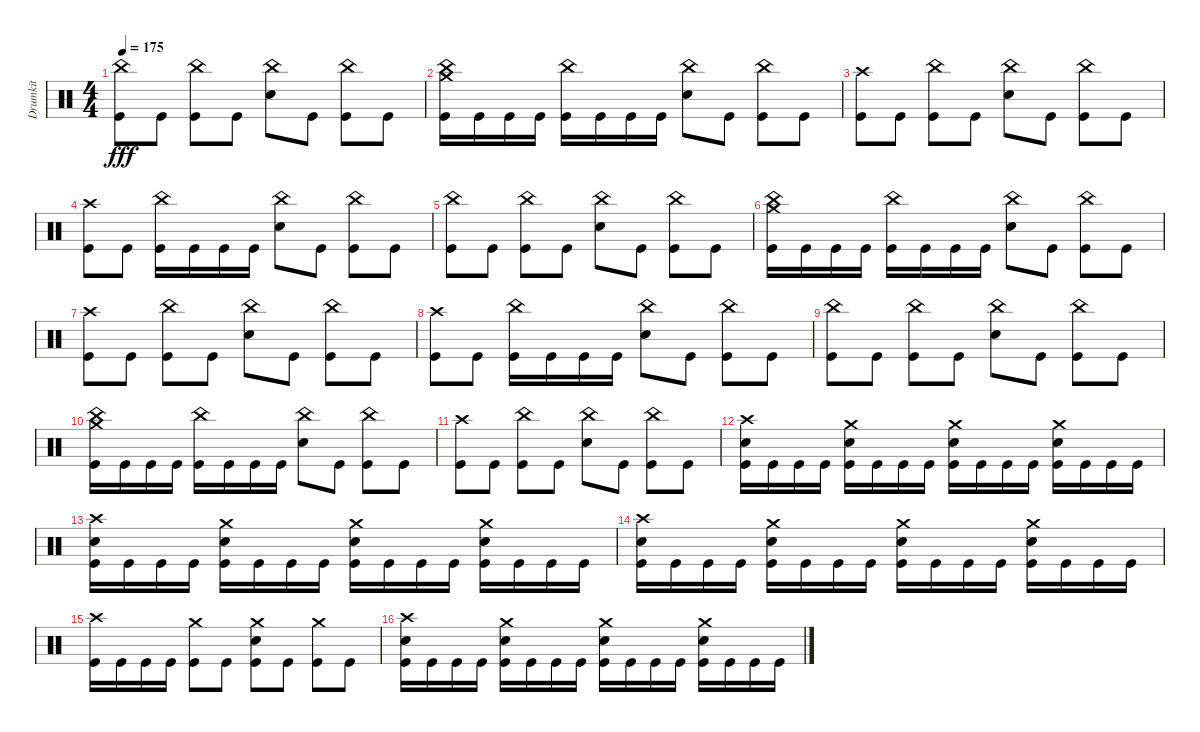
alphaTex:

\track ("Drumkit" "Drumkit") {instrument percussion}
\staff {score}
\articulation defaults
\ts (4 4)
\tempo 175
\clef neutral
\ks c
("China (hit)" "Kick (hit)").8{dy fff} "Kick (hit)".8 ("China (hit)" "Kick (hit)").8 "Kick (hit)".8 ("China (hit)" "Snare (hit) 2").8 "Kick (hit)".8 ("China (hit)" "Kick (hit)").8 "Kick (hit)".8 |
("China (hit)" "Crash medium (hit)" "Kick (hit)").16 "Kick (hit)".16 "Kick (hit)".16 "Kick (hit)".16 ("China (hit)" "Kick (hit)").16 "Kick (hit)".16 "Kick (hit)".16 "Kick (hit)".16 ("China (hit)" "Snare (hit) 2").8 "Kick (hit)".8 ("China (hit)" "Kick (hit)").8 "Kick (hit)".8 |
("Crash high (hit)" "Kick (hit)").8 "Kick (hit)".8 ("China (hit)" "Kick (hit)").8 "Kick (hit)".8 ("China (hit)" "Snare (hit) 2").8 "Kick (hit)".8 ("China (hit)" "Kick (hit)").8 "Kick (hit)".8 |
("Crash high (hit)" "Kick (hit)").8 "Kick (hit)".8 ("China (hit)" "Kick (hit)").16 "Kick (hit)".16 "Kick (hit)".16 "Kick (hit)".16 ("China (hit)" "Snare (hit) 2").8 "Kick (hit)".8 ("China (hit)" "Kick (hit)").8 "Kick (hit)".8 |
("China (hit)" "Kick (hit)").8 "Kick (hit)".8 ("China (hit)" "Kick (hit)").8 "Kick (hit)".8 ("China (hit)" "Snare (hit) 2").8 "Kick (hit)".8 ("China (hit)" "Kick (hit)").8 "Kick (hit)".8 |
("China (hit)" "Crash medium (hit)" "Kick (hit)").16 "Kick (hit)".16 "Kick (hit)".16 "Kick (hit)".16 ("China (hit)" "Kick (hit)").16 "Kick (hit)".16 "Kick (hit)".16 "Kick (hit)".16 ("China (hit)" "Snare (hit) 2").8 "Kick (hit)".8 ("China (hit)" "Kick (hit)").8 "Kick (hit)".8 |
("Crash high (hit)" "Kick (hit)").8 "Kick (hit)".8 ("China (hit)" "Kick (hit)").8 "Kick (hit)".8 ("China (hit)" "Snare (hit) 2").8 "Kick (hit)".8 ("China (hit)" "Kick (hit)").8 "Kick (hit)".8 |
("Crash high (hit)" "Kick (hit)").8 "Kick (hit)".8 ("China (hit)" "Kick (hit)").16 "Kick (hit)".16 "Kick (hit)".16 "Kick (hit)".16 ("China (hit)" "Snare (hit) 2").8 "Kick (hit)".8 ("China (hit)" "Kick (hit)").8 "Kick (hit)".8 |
("China (hit)" "Kick (hit)").8 "Kick (hit)".8 ("China (hit)" "Kick (hit)").8 "Kick (hit)".8 ("China (hit)" "Snare (hit) 2").8 "Kick (hit)".8 ("China (hit)" "Kick (hit)").8 "Kick (hit)".8 |
("China (hit)" "Crash medium (hit)" "Kick (hit)").16 "Kick (hit)".16 "Kick (hit)".16 "Kick (hit)".16 ("China (hit)" "Kick (hit)").16 "Kick (hit)".16 "Kick (hit)".16 "Kick (hit)".16 ("China (hit)" "Snare (hit) 2").8 "Kick (hit)".8 ("China (hit)" "Kick (hit)").8 "Kick (hit)".8 |
("Crash high (hit)" "Kick (hit)").8 "Kick (hit)".8 ("China (hit)" "Kick (hit)").8 "Kick (hit)".8 ("China (hit)" "Snare (hit) 2").8 "Kick (hit)".8 ("China (hit)" "Kick (hit)").8 "Kick (hit)".8 |
("Crash high (hit)" "Snare (hit) 2" "Kick (hit)").16 "Kick (hit)".16 "Kick (hit)".16 "Kick (hit)".16 ("Crash medium (hit)" "Snare (hit) 2" "Kick (hit)").16 "Kick (hit)".16 "Kick (hit)".16 "Kick (hit)".16 ("Crash medium (hit)" "Snare (hit) 2" "Kick (hit)").16 "Kick (hit)".16 "Kick (hit)".16 "Kick (hit)".16 ("Crash medium (hit)" "Snare (hit) 2" "Kick (hit)").16 "Kick (hit)".16 "Kick (hit)".16 "Kick (hit)".16 |
("Crash high (hit)" "Snare (hit) 2" "Kick (hit)").16 "Kick (hit)".16 "Kick (hit)".16 "Kick (hit)".16 ("Crash medium (hit)" "Snare (hit) 2" "Kick (hit)").16 "Kick (hit)".16 "Kick (hit)".16 "Kick (hit)".16 ("Crash medium (hit)" "Snare (hit) 2" "Kick (hit)").16 "Kick (hit)".16 "Kick (hit)".16 "Kick (hit)".16 ("Crash medium (hit)" "Snare (hit) 2" "Kick (hit)").16 "Kick (hit)".16 "Kick (hit)".16 "Kick (hit)".16 |
("Crash high (hit)" "Snare (hit) 2" "Kick (hit)").16 "Kick (hit)".16 "Kick (hit)".16 "Kick (hit)".16 ("Crash medium (hit)" "Snare (hit) 2" "Kick (hit)").16 "Kick (hit)".16 "Kick (hit)".16 "Kick (hit)".16 ("Crash medium (hit)" "Snare (hit) 2" "Kick (hit)").16 "Kick (hit)".16 "Kick (hit)".16 "Kick (hit)".16 ("Crash medium (hit)" "Snare (hit) 2" "Kick (hit)").16 "Kick (hit)".16 "Kick (hit)".16 "Kick (hit)".16 |
("Crash high (hit)" "Kick (hit)").16 "Kick (hit)".16 "Kick (hit)".16 "Kick (hit)".16 ("Crash medium (hit)" "Kick (hit)").8 "Kick (hit)".8 ("Crash medium (hit)" "Snare (hit) 2" "Kick (hit)").8 "Kick (hit)".8 ("Crash medium (hit)" "Kick (hit)").8 "Kick (hit)".8 |
("Crash high (hit)" "Snare (hit) 2" "Kick (hit)").16 "Kick (hit)".16 "Kick (hit)".16 "Kick (hit)".16 ("Crash medium (hit)" "Snare (hit) 2" "Kick (hit)").16 "Kick (hit)".16 "Kick (hit)".16 "Kick (hit)".16 ("Crash medium (hit)" "Snare (hit) 2" "Kick (hit)").16 "Kick (hit)".16 "Kick (hit)".16 "Kick (hit)".16 ("Crash medium (hit)" "Snare (hit) 2" "Kick (hit)").16 "Kick (hit)".16 "Kick (hit)".16 "Kick (hit)".16
